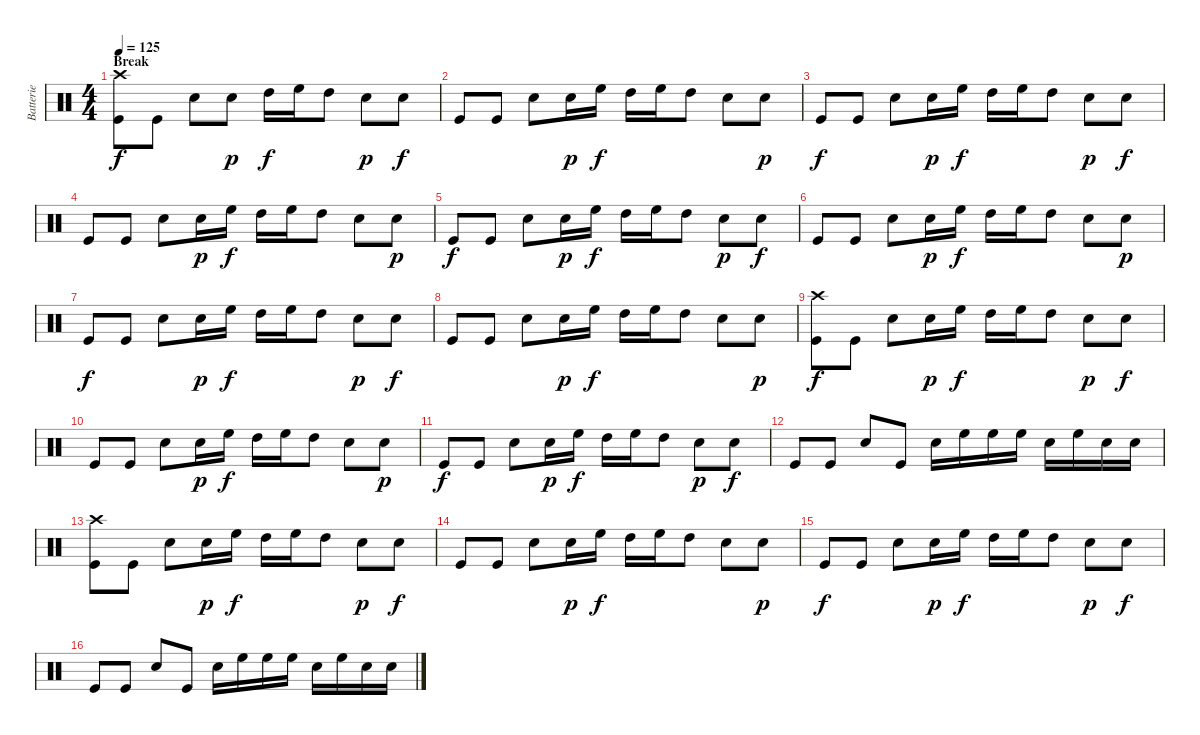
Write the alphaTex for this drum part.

\track ("Batterie" "Batterie") {instrument percussion}
\staff {score}
\articulation defaults
\ts (4 4)
\section ("" "Break")
\tempo 125
\clef neutral
\ks c
("Kick (hit)" "Crash high (hit)").8{dy f} "Kick (hit)".8 "Snare (hit) 2".8 "Snare (hit) 2".8{dy p} "High Tom (hit)".16{dy f} "High Floor Tom (hit)".16 "High Tom (hit)".8 "Snare (hit) 2".8{dy p} "Snare (hit) 2".8{dy f} |
"Kick (hit)".8 "Kick (hit)".8 "Snare (hit) 2".8 "Snare (hit) 2".16{dy p} "High Floor Tom (hit)".16{dy f} "High Tom (hit)".16 "High Floor Tom (hit)".16 "High Tom (hit)".8 "Snare (hit) 2".8 "Snare (hit) 2".8{dy p} |
"Kick (hit)".8{dy f} "Kick (hit)".8 "Snare (hit) 2".8 "Snare (hit) 2".16{dy p} "High Floor Tom (hit)".16{dy f} "High Tom (hit)".16 "High Floor Tom (hit)".16 "High Tom (hit)".8 "Snare (hit) 2".8{dy p} "Snare (hit) 2".8{dy f} |
"Kick (hit)".8 "Kick (hit)".8 "Snare (hit) 2".8 "Snare (hit) 2".16{dy p} "High Floor Tom (hit)".16{dy f} "High Tom (hit)".16 "High Floor Tom (hit)".16 "High Tom (hit)".8 "Snare (hit) 2".8 "Snare (hit) 2".8{dy p} |
"Kick (hit)".8{dy f} "Kick (hit)".8 "Snare (hit) 2".8 "Snare (hit) 2".16{dy p} "High Floor Tom (hit)".16{dy f} "High Tom (hit)".16 "High Floor Tom (hit)".16 "High Tom (hit)".8 "Snare (hit) 2".8{dy p} "Snare (hit) 2".8{dy f} |
"Kick (hit)".8 "Kick (hit)".8 "Snare (hit) 2".8 "Snare (hit) 2".16{dy p} "High Floor Tom (hit)".16{dy f} "High Tom (hit)".16 "High Floor Tom (hit)".16 "High Tom (hit)".8 "Snare (hit) 2".8 "Snare (hit) 2".8{dy p} |
"Kick (hit)".8{dy f} "Kick (hit)".8 "Snare (hit) 2".8 "Snare (hit) 2".16{dy p} "High Floor Tom (hit)".16{dy f} "High Tom (hit)".16 "High Floor Tom (hit)".16 "High Tom (hit)".8 "Snare (hit) 2".8{dy p} "Snare (hit) 2".8{dy f} |
"Kick (hit)".8 "Kick (hit)".8 "Snare (hit) 2".8 "Snare (hit) 2".16{dy p} "High Floor Tom (hit)".16{dy f} "High Tom (hit)".16 "High Floor Tom (hit)".16 "High Tom (hit)".8 "Snare (hit) 2".8 "Snare (hit) 2".8{dy p} |
("Kick (hit)" "Crash high (hit)").8{dy f} "Kick (hit)".8 "Snare (hit) 2".8 "Snare (hit) 2".16{dy p} "High Floor Tom (hit)".16{dy f} "High Tom (hit)".16 "High Floor Tom (hit)".16 "High Tom (hit)".8 "Snare (hit) 2".8{dy p} "Snare (hit) 2".8{dy f} |
"Kick (hit)".8 "Kick (hit)".8 "Snare (hit) 2".8 "Snare (hit) 2".16{dy p} "High Floor Tom (hit)".16{dy f} "High Tom (hit)".16 "High Floor Tom (hit)".16 "High Tom (hit)".8 "Snare (hit) 2".8 "Snare (hit) 2".8{dy p} |
"Kick (hit)".8{dy f} "Kick (hit)".8 "Snare (hit) 2".8 "Snare (hit) 2".16{dy p} "High Floor Tom (hit)".16{dy f} "High Tom (hit)".16 "High Floor Tom (hit)".16 "High Tom (hit)".8 "Snare (hit) 2".8{dy p} "Snare (hit) 2".8{dy f} |
"Kick (hit)".8 "Kick (hit)".8 "Snare (hit) 2".8 "Kick (hit)".8 "Snare (hit) 2".16 "High Floor Tom (hit)".16 "High Floor Tom (hit)".16 "High Floor Tom (hit)".16 "Snare (hit) 2".16 "High Floor Tom (hit)".16 "Snare (hit) 2".16 "Snare (hit) 2".16 |
("Kick (hit)" "Crash high (hit)").8 "Kick (hit)".8 "Snare (hit) 2".8 "Snare (hit) 2".16{dy p} "High Floor Tom (hit)".16{dy f} "High Tom (hit)".16 "High Floor Tom (hit)".16 "High Tom (hit)".8 "Snare (hit) 2".8{dy p} "Snare (hit) 2".8{dy f} |
"Kick (hit)".8 "Kick (hit)".8 "Snare (hit) 2".8 "Snare (hit) 2".16{dy p} "High Floor Tom (hit)".16{dy f} "High Tom (hit)".16 "High Floor Tom (hit)".16 "High Tom (hit)".8 "Snare (hit) 2".8 "Snare (hit) 2".8{dy p} |
"Kick (hit)".8{dy f} "Kick (hit)".8 "Snare (hit) 2".8 "Snare (hit) 2".16{dy p} "High Floor Tom (hit)".16{dy f} "High Tom (hit)".16 "High Floor Tom (hit)".16 "High Tom (hit)".8 "Snare (hit) 2".8{dy p} "Snare (hit) 2".8{dy f} |
"Kick (hit)".8 "Kick (hit)".8 "Snare (hit) 2".8 "Kick (hit)".8 "Snare (hit) 2".16 "High Floor Tom (hit)".16 "High Floor Tom (hit)".16 "High Floor Tom (hit)".16 "Snare (hit) 2".16 "High Floor Tom (hit)".16 "Snare (hit) 2".16 "Snare (hit) 2".16
